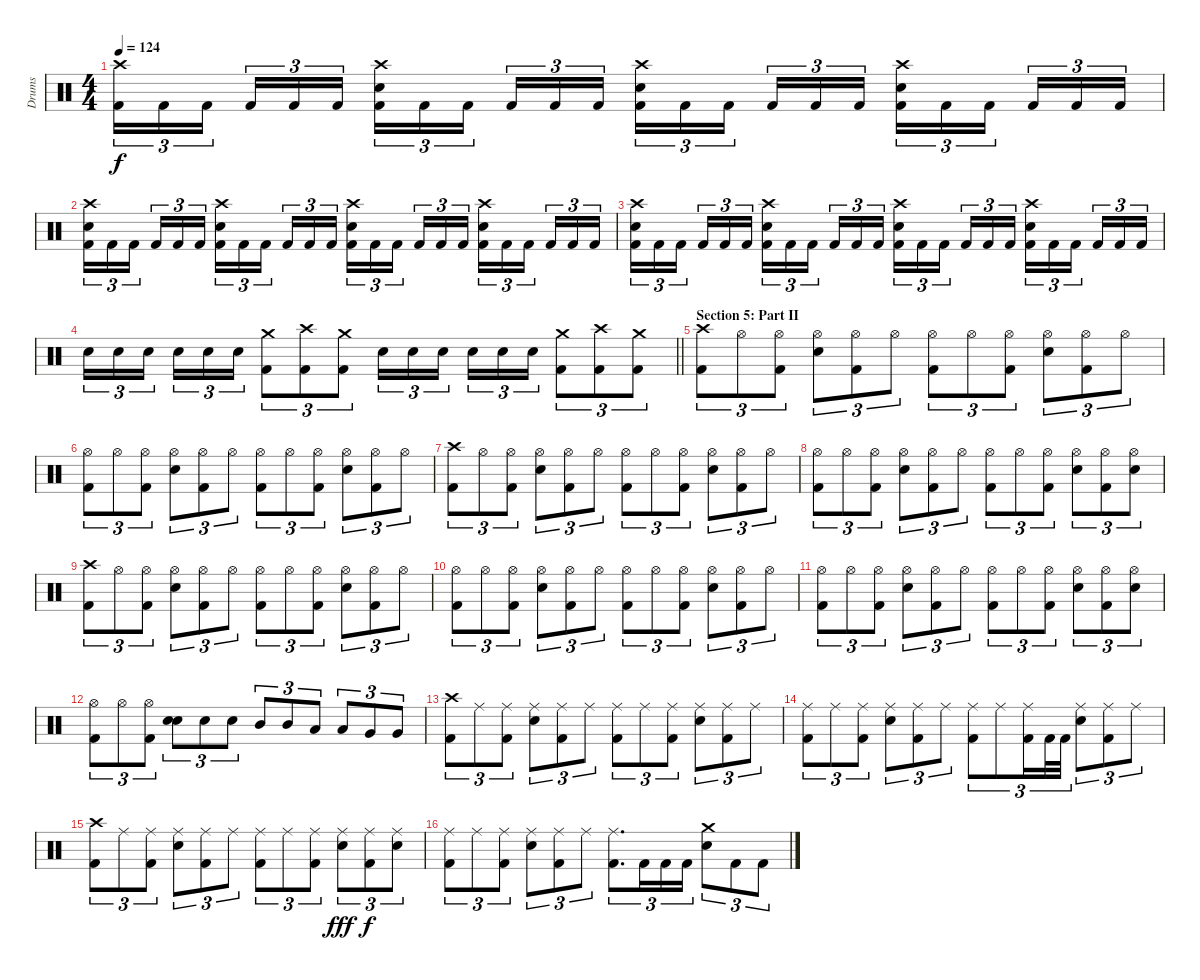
\track ("Drums" "Drums") {instrument percussion}
\staff {score}
\articulation defaults
\ts (4 4)
\tempo 124
\clef neutral
\ks c
("Crash high (hit)" "Kick (hit) 2").16{tu (3 2) dy f} "Kick (hit) 2".16{tu (3 2)} "Kick (hit) 2".16{tu (3 2) beam splitsecondary} "Kick (hit) 2".16{tu (3 2)} "Kick (hit) 2".16{tu (3 2)} "Kick (hit) 2".16{tu (3 2)} ("Crash high (hit)" "Electric Snare (hit)" "Kick (hit) 2").16{tu (3 2)} "Kick (hit) 2".16{tu (3 2)} "Kick (hit) 2".16{tu (3 2) beam splitsecondary} "Kick (hit) 2".16{tu (3 2)} "Kick (hit) 2".16{tu (3 2)} "Kick (hit) 2".16{tu (3 2)} ("Crash high (hit)" "Electric Snare (hit)" "Kick (hit) 2").16{tu (3 2)} "Kick (hit) 2".16{tu (3 2)} "Kick (hit) 2".16{tu (3 2) beam splitsecondary} "Kick (hit) 2".16{tu (3 2)} "Kick (hit) 2".16{tu (3 2)} "Kick (hit) 2".16{tu (3 2)} ("Crash high (hit)" "Electric Snare (hit)" "Kick (hit) 2").16{tu (3 2)} "Kick (hit) 2".16{tu (3 2)} "Kick (hit) 2".16{tu (3 2) beam splitsecondary} "Kick (hit) 2".16{tu (3 2)} "Kick (hit) 2".16{tu (3 2)} "Kick (hit) 2".16{tu (3 2)} |
("Crash high (hit)" "Electric Snare (hit)" "Kick (hit) 2").16{tu (3 2)} "Kick (hit) 2".16{tu (3 2)} "Kick (hit) 2".16{tu (3 2) beam splitsecondary} "Kick (hit) 2".16{tu (3 2)} "Kick (hit) 2".16{tu (3 2)} "Kick (hit) 2".16{tu (3 2)} ("Crash high (hit)" "Electric Snare (hit)" "Kick (hit) 2").16{tu (3 2)} "Kick (hit) 2".16{tu (3 2)} "Kick (hit) 2".16{tu (3 2) beam splitsecondary} "Kick (hit) 2".16{tu (3 2)} "Kick (hit) 2".16{tu (3 2)} "Kick (hit) 2".16{tu (3 2)} ("Crash high (hit)" "Electric Snare (hit)" "Kick (hit) 2").16{tu (3 2)} "Kick (hit) 2".16{tu (3 2)} "Kick (hit) 2".16{tu (3 2) beam splitsecondary} "Kick (hit) 2".16{tu (3 2)} "Kick (hit) 2".16{tu (3 2)} "Kick (hit) 2".16{tu (3 2)} ("Crash high (hit)" "Electric Snare (hit)" "Kick (hit) 2").16{tu (3 2)} "Kick (hit) 2".16{tu (3 2)} "Kick (hit) 2".16{tu (3 2) beam splitsecondary} "Kick (hit) 2".16{tu (3 2)} "Kick (hit) 2".16{tu (3 2)} "Kick (hit) 2".16{tu (3 2)} |
("Crash high (hit)" "Electric Snare (hit)" "Kick (hit) 2").16{tu (3 2)} "Kick (hit) 2".16{tu (3 2)} "Kick (hit) 2".16{tu (3 2) beam splitsecondary} "Kick (hit) 2".16{tu (3 2)} "Kick (hit) 2".16{tu (3 2)} "Kick (hit) 2".16{tu (3 2)} ("Crash high (hit)" "Electric Snare (hit)" "Kick (hit) 2").16{tu (3 2)} "Kick (hit) 2".16{tu (3 2)} "Kick (hit) 2".16{tu (3 2) beam splitsecondary} "Kick (hit) 2".16{tu (3 2)} "Kick (hit) 2".16{tu (3 2)} "Kick (hit) 2".16{tu (3 2)} ("Crash high (hit)" "Electric Snare (hit)" "Kick (hit) 2").16{tu (3 2)} "Kick (hit) 2".16{tu (3 2)} "Kick (hit) 2".16{tu (3 2) beam splitsecondary} "Kick (hit) 2".16{tu (3 2)} "Kick (hit) 2".16{tu (3 2)} "Kick (hit) 2".16{tu (3 2)} ("Crash high (hit)" "Electric Snare (hit)" "Kick (hit) 2").16{tu (3 2)} "Kick (hit) 2".16{tu (3 2)} "Kick (hit) 2".16{tu (3 2) beam splitsecondary} "Kick (hit) 2".16{tu (3 2)} "Kick (hit) 2".16{tu (3 2)} "Kick (hit) 2".16{tu (3 2)} |
\barLineRight lightlight "Electric Snare (hit)".16{tu (3 2)} "Electric Snare (hit)".16{tu (3 2)} "Electric Snare (hit)".16{tu (3 2) beam splitsecondary} "Electric Snare (hit)".16{tu (3 2)} "Electric Snare (hit)".16{tu (3 2)} "Electric Snare (hit)".16{tu (3 2)}
("Crash medium (hit)" "Kick (hit) 2").8{tu (3 2)} ("Crash high (hit)" "Kick (hit) 2").8{tu (3 2)} ("Crash medium (hit)" "Kick (hit) 2").8{tu (3 2)} "Electric Snare (hit)".16{tu (3 2)} "Electric Snare (hit)".16{tu (3 2)} "Electric Snare (hit)".16{tu (3 2) beam splitsecondary} "Electric Snare (hit)".16{tu (3 2)} "Electric Snare (hit)".16{tu (3 2)} "Electric Snare (hit)".16{tu (3 2)} ("Crash medium (hit)" "Kick (hit) 2").8{tu (3 2)} ("Crash high (hit)" "Kick (hit) 2").8{tu (3 2)} ("Crash medium (hit)" "Kick (hit) 2").8{tu (3 2)} |
\section ("" "Section 5: Part II")
("Crash high (hit)" "Kick (hit) 2").8{tu (3 2)} "Hi-Hat (open)".8{tu (3 2)} ("Hi-Hat (open)" "Kick (hit) 2").8{tu (3 2)} ("Hi-Hat (open)" "Electric Snare (hit)").8{tu (3 2)} ("Hi-Hat (open)" "Kick (hit) 2").8{tu (3 2)} "Hi-Hat (open)".8{tu (3 2)} ("Hi-Hat (open)" "Kick (hit) 2").8{tu (3 2)} "Hi-Hat (open)".8{tu (3 2)} ("Hi-Hat (open)" "Kick (hit) 2").8{tu (3 2)} ("Hi-Hat (open)" "Electric Snare (hit)").8{tu (3 2)} ("Hi-Hat (open)" "Kick (hit) 2").8{tu (3 2)} "Hi-Hat (open)".8{tu (3 2)} |
("Hi-Hat (open)" "Kick (hit) 2").8{tu (3 2)} "Hi-Hat (open)".8{tu (3 2)} ("Hi-Hat (open)" "Kick (hit) 2").8{tu (3 2)} ("Hi-Hat (open)" "Electric Snare (hit)").8{tu (3 2)} ("Hi-Hat (open)" "Kick (hit) 2").8{tu (3 2)} "Hi-Hat (open)".8{tu (3 2)} ("Hi-Hat (open)" "Kick (hit) 2").8{tu (3 2)} "Hi-Hat (open)".8{tu (3 2)} ("Hi-Hat (open)" "Kick (hit) 2").8{tu (3 2)} ("Hi-Hat (open)" "Electric Snare (hit)").8{tu (3 2)} ("Hi-Hat (open)" "Kick (hit) 2").8{tu (3 2)} "Hi-Hat (open)".8{tu (3 2)} |
("Crash high (hit)" "Kick (hit) 2").8{tu (3 2)} "Hi-Hat (open)".8{tu (3 2)} ("Hi-Hat (open)" "Kick (hit) 2").8{tu (3 2)} ("Hi-Hat (open)" "Electric Snare (hit)").8{tu (3 2)} ("Hi-Hat (open)" "Kick (hit) 2").8{tu (3 2)} "Hi-Hat (open)".8{tu (3 2)} ("Hi-Hat (open)" "Kick (hit) 2").8{tu (3 2)} "Hi-Hat (open)".8{tu (3 2)} ("Hi-Hat (open)" "Kick (hit) 2").8{tu (3 2)} ("Hi-Hat (open)" "Electric Snare (hit)").8{tu (3 2)} ("Hi-Hat (open)" "Kick (hit) 2").8{tu (3 2)} "Hi-Hat (open)".8{tu (3 2)} |
("Hi-Hat (open)" "Kick (hit) 2").8{tu (3 2)} "Hi-Hat (open)".8{tu (3 2)} ("Hi-Hat (open)" "Kick (hit) 2").8{tu (3 2)} ("Hi-Hat (open)" "Electric Snare (hit)").8{tu (3 2)} ("Hi-Hat (open)" "Kick (hit) 2").8{tu (3 2)} "Hi-Hat (open)".8{tu (3 2)} ("Hi-Hat (open)" "Kick (hit) 2").8{tu (3 2)} "Hi-Hat (open)".8{tu (3 2)} ("Hi-Hat (open)" "Kick (hit) 2").8{tu (3 2)} ("Hi-Hat (open)" "Electric Snare (hit)").8{tu (3 2)} ("Hi-Hat (open)" "Kick (hit) 2").8{tu (3 2)} ("Hi-Hat (open)" "Electric Snare (hit)").8{tu (3 2)} |
("Crash high (hit)" "Kick (hit) 2").8{tu (3 2)} "Hi-Hat (open)".8{tu (3 2)} ("Hi-Hat (open)" "Kick (hit) 2").8{tu (3 2)} ("Hi-Hat (open)" "Electric Snare (hit)").8{tu (3 2)} ("Hi-Hat (open)" "Kick (hit) 2").8{tu (3 2)} "Hi-Hat (open)".8{tu (3 2)} ("Hi-Hat (open)" "Kick (hit) 2").8{tu (3 2)} "Hi-Hat (open)".8{tu (3 2)} ("Hi-Hat (open)" "Kick (hit) 2").8{tu (3 2)} ("Hi-Hat (open)" "Electric Snare (hit)").8{tu (3 2)} ("Hi-Hat (open)" "Kick (hit) 2").8{tu (3 2)} "Hi-Hat (open)".8{tu (3 2)} |
("Hi-Hat (open)" "Kick (hit) 2").8{tu (3 2)} "Hi-Hat (open)".8{tu (3 2)} ("Hi-Hat (open)" "Kick (hit) 2").8{tu (3 2)} ("Hi-Hat (open)" "Electric Snare (hit)").8{tu (3 2)} ("Hi-Hat (open)" "Kick (hit) 2").8{tu (3 2)} "Hi-Hat (open)".8{tu (3 2)} ("Hi-Hat (open)" "Kick (hit) 2").8{tu (3 2)} "Hi-Hat (open)".8{tu (3 2)} ("Hi-Hat (open)" "Kick (hit) 2").8{tu (3 2)} ("Hi-Hat (open)" "Electric Snare (hit)").8{tu (3 2)} ("Hi-Hat (open)" "Kick (hit) 2").8{tu (3 2)} "Hi-Hat (open)".8{tu (3 2)} |
("Hi-Hat (open)" "Kick (hit) 2").8{tu (3 2)} "Hi-Hat (open)".8{tu (3 2)} ("Hi-Hat (open)" "Kick (hit) 2").8{tu (3 2)} ("Hi-Hat (open)" "Electric Snare (hit)").8{tu (3 2)} ("Hi-Hat (open)" "Kick (hit) 2").8{tu (3 2)} "Hi-Hat (open)".8{tu (3 2)} ("Hi-Hat (open)" "Kick (hit) 2").8{tu (3 2)} "Hi-Hat (open)".8{tu (3 2)} ("Hi-Hat (open)" "Kick (hit) 2").8{tu (3 2)} ("Hi-Hat (open)" "Electric Snare (hit)").8{tu (3 2)} ("Hi-Hat (open)" "Kick (hit) 2").8{tu (3 2)} ("Hi-Hat (open)" "Electric Snare (hit)").8{tu (3 2)} |
("Hi-Hat (open)" "Kick (hit) 2").8{tu (3 2)} "Hi-Hat (open)".8{tu (3 2)} ("Hi-Hat (open)" "Kick (hit) 2").8{tu (3 2)} ("Electric Snare (hit)" "Electric Snare (hit)").8{tu (3 2) bu 60} "Electric Snare (hit)".8{tu (3 2)} "Electric Snare (hit)".8{tu (3 2)} "Mid Tom (hit)".8{tu (3 2)} "Mid Tom (hit)".8{tu (3 2)} "Low Tom (hit)".8{tu (3 2)} "Low Tom (hit)".8{tu (3 2)} "Very Low Tom (hit)".8{tu (3 2)} "Very Low Tom (hit)".8{tu (3 2)} |
("Crash high (hit)" "Kick (hit) 2").8{tu (3 2)} "Ride (middle)".8{tu (3 2)} ("Ride (middle)" "Kick (hit) 2").8{tu (3 2)} ("Ride (middle)" "Electric Snare (hit)").8{tu (3 2)} ("Ride (middle)" "Kick (hit) 2").8{tu (3 2)} "Ride (middle)".8{tu (3 2)} ("Ride (middle)" "Kick (hit) 2").8{tu (3 2)} "Ride (middle)".8{tu (3 2)} ("Ride (middle)" "Kick (hit) 2").8{tu (3 2)} ("Ride (middle)" "Electric Snare (hit)").8{tu (3 2)} ("Ride (middle)" "Kick (hit) 2").8{tu (3 2)} "Ride (middle)".8{tu (3 2)} |
("Ride (middle)" "Kick (hit) 2").8{tu (3 2)} "Ride (middle)".8{tu (3 2)} ("Ride (middle)" "Kick (hit) 2").8{tu (3 2)} ("Ride (middle)" "Electric Snare (hit)").8{tu (3 2)} ("Ride (middle)" "Kick (hit) 2").8{tu (3 2)} "Ride (middle)".8{tu (3 2)} ("Ride (middle)" "Kick (hit) 2").8{tu (3 2)} "Ride (middle)".8{tu (3 2)} ("Ride (middle)" "Kick (hit) 2").16{tu (3 2)} "Kick (hit) 2".32{tu (3 2)} "Kick (hit) 2".32{tu (3 2)} ("Ride (middle)" "Electric Snare (hit)").8{tu (3 2)} ("Ride (middle)" "Kick (hit) 2").8{tu (3 2)} "Ride (middle)".8{tu (3 2)} |
("Crash high (hit)" "Kick (hit) 2").8{tu (3 2)} "Ride (middle)".8{tu (3 2)} ("Ride (middle)" "Kick (hit) 2").8{tu (3 2)} ("Ride (middle)" "Electric Snare (hit)").8{tu (3 2)} ("Ride (middle)" "Kick (hit) 2").8{tu (3 2)} "Ride (middle)".8{tu (3 2)} ("Ride (middle)" "Kick (hit) 2").8{tu (3 2)} "Ride (middle)".8{tu (3 2)} ("Ride (middle)" "Kick (hit) 2").8{tu (3 2)} ("Ride (middle)" "Electric Snare (hit)").8{tu (3 2) dy fff} ("Ride (middle)" "Kick (hit) 2").8{tu (3 2) dy f} ("Ride (middle)" "Electric Snare (hit)").8{tu (3 2)} |
("Ride (middle)" "Kick (hit) 2").8{tu (3 2)} "Ride (middle)".8{tu (3 2)} ("Ride (middle)" "Kick (hit) 2").8{tu (3 2)} ("Ride (middle)" "Electric Snare (hit)").8{tu (3 2)} ("Ride (middle)" "Kick (hit) 2").8{tu (3 2)} "Ride (middle)".8{tu (3 2)} ("Ride (middle)" "Kick (hit) 2").8{d tu (3 2)} "Kick (hit) 2".16{tu (3 2)} "Kick (hit) 2".16{tu (3 2)} "Kick (hit) 2".16{tu (3 2)} ("Crash medium (hit)" "Electric Snare (hit)").8{tu (3 2)} "Kick (hit) 2".8{tu (3 2)} "Kick (hit) 2".8{tu (3 2)}
